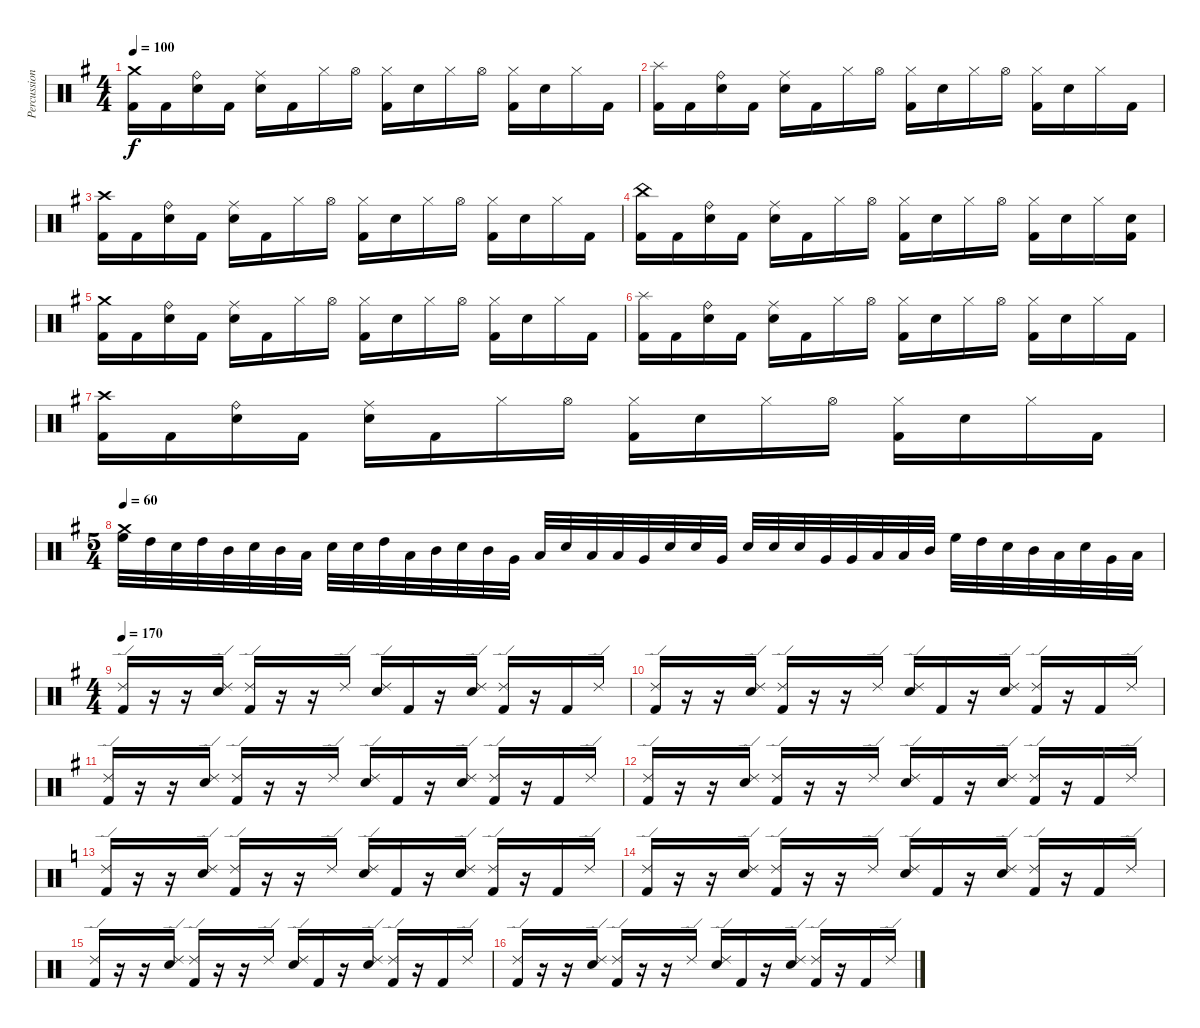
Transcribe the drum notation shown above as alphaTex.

\track ("Percussion" "Percussion") {instrument percussion}
\staff {score}
\articulation defaults
\ts (4 4)
\tempo 100
\clef neutral
\ks g
("Crash medium (hit)" "Kick (hit) 2").16{dy f} "Kick (hit) 2".16 ("Ride (bell)" "Electric Snare (hit)").16 "Kick (hit) 2".16 ("Ride (middle)" "Electric Snare (hit)").16 "Kick (hit) 2".16 "Hi-Hat (closed)".16 "Hi-Hat (open)".16 ("Hi-Hat (closed)" "Kick (hit) 2").16 "Electric Snare (hit)".16 "Hi-Hat (closed)".16 "Hi-Hat (open)".16 ("Hi-Hat (closed)" "Kick (hit) 2").16 "Electric Snare (hit)".16 "Hi-Hat (closed)".16 "Kick (hit) 2".16 |
("Splash (hit)" "Kick (hit) 2").16 "Kick (hit) 2".16 ("Ride (bell)" "Electric Snare (hit)").16 "Kick (hit) 2".16 ("Ride (middle)" "Electric Snare (hit)").16 "Kick (hit) 2".16 "Hi-Hat (closed)".16 "Hi-Hat (open)".16 ("Hi-Hat (closed)" "Kick (hit) 2").16 "Electric Snare (hit)".16 "Hi-Hat (closed)".16 "Hi-Hat (open)".16 ("Hi-Hat (closed)" "Kick (hit) 2").16 "Electric Snare (hit)".16 "Hi-Hat (closed)".16 "Kick (hit) 2".16 |
("Crash high (hit)" "Kick (hit) 2").16 "Kick (hit) 2".16 ("Ride (bell)" "Electric Snare (hit)").16 "Kick (hit) 2".16 ("Ride (middle)" "Electric Snare (hit)").16 "Kick (hit) 2".16 "Hi-Hat (closed)".16 "Hi-Hat (open)".16 ("Hi-Hat (closed)" "Kick (hit) 2").16 "Electric Snare (hit)".16 "Hi-Hat (closed)".16 "Hi-Hat (open)".16 ("Hi-Hat (closed)" "Kick (hit) 2").16 "Electric Snare (hit)".16 "Hi-Hat (closed)".16 "Kick (hit) 2".16 |
("China (hit)" "Kick (hit) 2").16 "Kick (hit) 2".16 ("Ride (bell)" "Electric Snare (hit)").16 "Kick (hit) 2".16 ("Ride (middle)" "Electric Snare (hit)").16 "Kick (hit) 2".16 "Hi-Hat (closed)".16 "Hi-Hat (open)".16 ("Hi-Hat (closed)" "Kick (hit) 2").16 "Electric Snare (hit)".16 "Hi-Hat (closed)".16 "Hi-Hat (open)".16 ("Hi-Hat (closed)" "Kick (hit) 2").16 "Electric Snare (hit)".16 "Hi-Hat (closed)".16 ("Electric Snare (hit)" "Kick (hit) 2").16 |
("Crash medium (hit)" "Kick (hit) 2").16 "Kick (hit) 2".16 ("Ride (bell)" "Electric Snare (hit)").16 "Kick (hit) 2".16 ("Ride (middle)" "Electric Snare (hit)").16 "Kick (hit) 2".16 "Hi-Hat (closed)".16 "Hi-Hat (open)".16 ("Hi-Hat (closed)" "Kick (hit) 2").16 "Electric Snare (hit)".16 "Hi-Hat (closed)".16 "Hi-Hat (open)".16 ("Hi-Hat (closed)" "Kick (hit) 2").16 "Electric Snare (hit)".16 "Hi-Hat (closed)".16 "Kick (hit) 2".16 |
("Splash (hit)" "Kick (hit) 2").16 "Kick (hit) 2".16 ("Ride (bell)" "Electric Snare (hit)").16 "Kick (hit) 2".16 ("Ride (middle)" "Electric Snare (hit)").16 "Kick (hit) 2".16 "Hi-Hat (closed)".16 "Hi-Hat (open)".16 ("Hi-Hat (closed)" "Kick (hit) 2").16 "Electric Snare (hit)".16 "Hi-Hat (closed)".16 "Hi-Hat (open)".16 ("Hi-Hat (closed)" "Kick (hit) 2").16 "Electric Snare (hit)".16 "Hi-Hat (closed)".16 "Kick (hit) 2".16 |
("Crash high (hit)" "Kick (hit) 2").16 "Kick (hit) 2".16 ("Ride (bell)" "Electric Snare (hit)").16 "Kick (hit) 2".16 ("Ride (middle)" "Electric Snare (hit)").16 "Kick (hit) 2".16 "Hi-Hat (closed)".16 "Hi-Hat (open)".16 ("Hi-Hat (closed)" "Kick (hit) 2").16 "Electric Snare (hit)".16 "Hi-Hat (closed)".16 "Hi-Hat (open)".16 ("Hi-Hat (closed)" "Kick (hit) 2").16 "Electric Snare (hit)".16 "Hi-Hat (closed)".16 "Kick (hit) 2".16 |
\ts (5 4)
\tempo 60
("Crash medium (hit)" "High Floor Tom (hit)").32 "High Tom (hit)".32 "Electric Snare (hit)".32 "High Tom (hit)".32 "Mid Tom (hit)".32 "Electric Snare (hit)".32 "Mid Tom (hit)".32 "Low Tom (hit)".32 "Electric Snare (hit)".32 "Electric Snare (hit)".32 "High Tom (hit)".32 "Low Tom (hit)".32 "Mid Tom (hit)".32 "Electric Snare (hit)".32 "Mid Tom (hit)".32 "Very Low Tom (hit)".32 "Low Tom (hit)".32 "Electric Snare (hit)".32 "Low Tom (hit)".32 "Low Floor Tom (hit)".32 "Very Low Tom (hit)".32 "Electric Snare (hit)".32 "Electric Snare (hit)".32 "Very Low Tom (hit)".32 "Electric Snare (hit)".32 "Electric Snare (hit)".32 "Electric Snare (hit)".32 "Very Low Tom (hit)".32 "Very Low Tom (hit)".32 "Low Tom (hit)".32 "Low Tom (hit)".32 "Mid Tom (hit)".32 "High Floor Tom (hit)".32 "High Tom (hit)".32 "Electric Snare (hit)".32 "Mid Tom (hit)".32 "Low Tom (hit)".32 "Electric Snare (hit)".32 "Very Low Tom (hit)".32 "Low Floor Tom (hit)".32 |
\ts (4 4)
\tempo 170
("Ride (edge) 2" "Kick (hit) 2").16 r.16 r.16 ("Ride (edge) 2" "Electric Snare (hit)").16 ("Ride (edge) 2" "Kick (hit) 2").16 r.16 r.16 "Ride (edge) 2".16 ("Ride (edge) 2" "Electric Snare (hit)").16 "Kick (hit) 2".16 r.16 ("Ride (edge) 2" "Electric Snare (hit)").16 ("Ride (edge) 2" "Kick (hit) 2").16 r.16 "Kick (hit) 2".16 "Ride (edge) 2".16 |
("Ride (edge) 2" "Kick (hit) 2").16 r.16 r.16 ("Ride (edge) 2" "Electric Snare (hit)").16 ("Ride (edge) 2" "Kick (hit) 2").16 r.16 r.16 "Ride (edge) 2".16 ("Ride (edge) 2" "Electric Snare (hit)").16 "Kick (hit) 2".16 r.16 ("Ride (edge) 2" "Electric Snare (hit)").16 ("Ride (edge) 2" "Kick (hit) 2").16 r.16 "Kick (hit) 2".16 "Ride (edge) 2".16 |
("Ride (edge) 2" "Kick (hit) 2").16 r.16 r.16 ("Ride (edge) 2" "Electric Snare (hit)").16 ("Ride (edge) 2" "Kick (hit) 2").16 r.16 r.16 "Ride (edge) 2".16 ("Ride (edge) 2" "Electric Snare (hit)").16 "Kick (hit) 2".16 r.16 ("Ride (edge) 2" "Electric Snare (hit)").16 ("Ride (edge) 2" "Kick (hit) 2").16 r.16 "Kick (hit) 2".16 "Ride (edge) 2".16 |
("Ride (edge) 2" "Kick (hit) 2").16 r.16 r.16 ("Ride (edge) 2" "Electric Snare (hit)").16 ("Ride (edge) 2" "Kick (hit) 2").16 r.16 r.16 "Ride (edge) 2".16 ("Ride (edge) 2" "Electric Snare (hit)").16 "Kick (hit) 2".16 r.16 ("Ride (edge) 2" "Electric Snare (hit)").16 ("Ride (edge) 2" "Kick (hit) 2").16 r.16 "Kick (hit) 2".16 "Ride (edge) 2".16 |
\ks c
("Ride (edge) 2" "Kick (hit) 2").16 r.16 r.16 ("Ride (edge) 2" "Electric Snare (hit)").16 ("Ride (edge) 2" "Kick (hit) 2").16 r.16 r.16 "Ride (edge) 2".16 ("Ride (edge) 2" "Electric Snare (hit)").16 "Kick (hit) 2".16 r.16 ("Ride (edge) 2" "Electric Snare (hit)").16 ("Ride (edge) 2" "Kick (hit) 2").16 r.16 "Kick (hit) 2".16 "Ride (edge) 2".16 |
("Ride (edge) 2" "Kick (hit) 2").16 r.16 r.16 ("Ride (edge) 2" "Electric Snare (hit)").16 ("Ride (edge) 2" "Kick (hit) 2").16 r.16 r.16 "Ride (edge) 2".16 ("Ride (edge) 2" "Electric Snare (hit)").16 "Kick (hit) 2".16 r.16 ("Ride (edge) 2" "Electric Snare (hit)").16 ("Ride (edge) 2" "Kick (hit) 2").16 r.16 "Kick (hit) 2".16 "Ride (edge) 2".16 |
("Ride (edge) 2" "Kick (hit) 2").16 r.16 r.16 ("Ride (edge) 2" "Electric Snare (hit)").16 ("Ride (edge) 2" "Kick (hit) 2").16 r.16 r.16 "Ride (edge) 2".16 ("Ride (edge) 2" "Electric Snare (hit)").16 "Kick (hit) 2".16 r.16 ("Ride (edge) 2" "Electric Snare (hit)").16 ("Ride (edge) 2" "Kick (hit) 2").16 r.16 "Kick (hit) 2".16 "Ride (edge) 2".16 |
("Ride (edge) 2" "Kick (hit) 2").16 r.16 r.16 ("Ride (edge) 2" "Electric Snare (hit)").16 ("Ride (edge) 2" "Kick (hit) 2").16 r.16 r.16 "Ride (edge) 2".16 ("Ride (edge) 2" "Electric Snare (hit)").16 "Kick (hit) 2".16 r.16 ("Ride (edge) 2" "Electric Snare (hit)").16 ("Ride (edge) 2" "Kick (hit) 2").16 r.16 "Kick (hit) 2".16 "Ride (edge) 2".16
